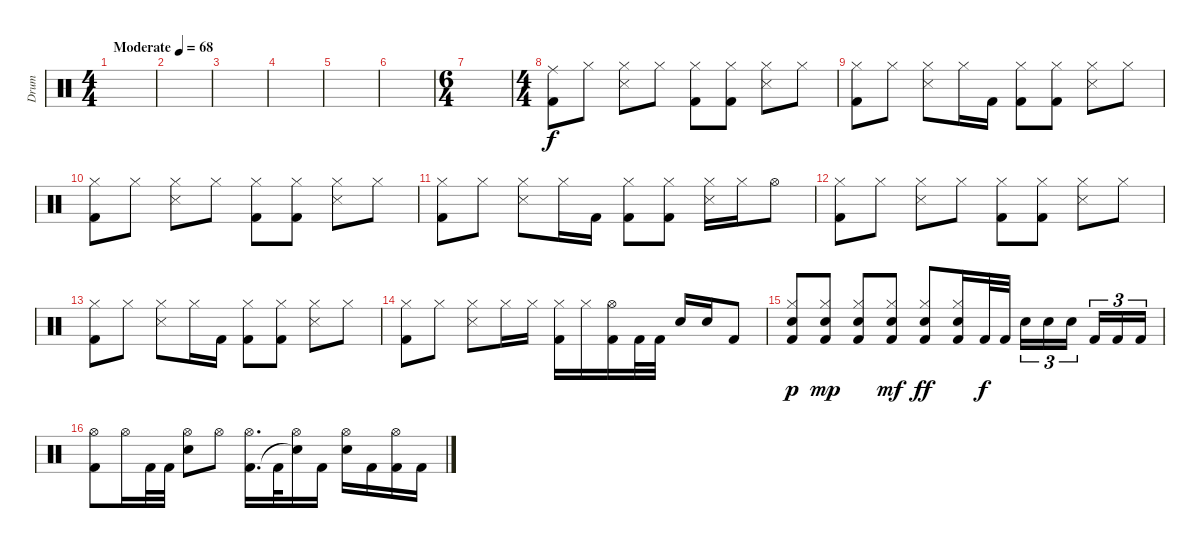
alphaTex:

\track ("Drum" "Drum") {instrument percussion}
\staff {score}
\articulation defaults
\ts (4 4)
\tempo (68 "Moderate")
\clef neutral
\ks c
|
|
|
|
|
|
\ts (6 4)
|
\ts (4 4)
("Ride (middle)" "Kick (hit) 2").8 "Hi-Hat (closed)".8 ("Hi-Hat (closed)" "Snare (side stick) 3").8 "Hi-Hat (closed)".8 ("Hi-Hat (closed)" "Kick (hit) 2").8 ("Hi-Hat (closed)" "Kick (hit) 2").8 ("Hi-Hat (closed)" "Snare (side stick) 3").8 "Hi-Hat (closed)".8 |
("Hi-Hat (closed)" "Kick (hit) 2").8 "Hi-Hat (closed)".8 ("Hi-Hat (closed)" "Snare (side stick) 3").8 "Hi-Hat (closed)".16 "Kick (hit) 2".16 ("Hi-Hat (closed)" "Kick (hit) 2").8 ("Hi-Hat (closed)" "Kick (hit) 2").8 ("Hi-Hat (closed)" "Snare (side stick) 3").8 "Hi-Hat (closed)".8 |
("Hi-Hat (closed)" "Kick (hit) 2").8 "Hi-Hat (closed)".8 ("Hi-Hat (closed)" "Snare (side stick) 3").8 "Hi-Hat (closed)".8 ("Hi-Hat (closed)" "Kick (hit) 2").8 ("Hi-Hat (closed)" "Kick (hit) 2").8 ("Hi-Hat (closed)" "Snare (side stick) 3").8 "Hi-Hat (closed)".8 |
("Hi-Hat (closed)" "Kick (hit) 2").8 "Hi-Hat (closed)".8 ("Hi-Hat (closed)" "Snare (side stick) 3").8 "Hi-Hat (closed)".16 "Kick (hit) 2".16 ("Hi-Hat (closed)" "Kick (hit) 2").8 ("Hi-Hat (closed)" "Kick (hit) 2").8 ("Hi-Hat (closed)" "Snare (side stick) 3").16 "Hi-Hat (closed)".16 "Hi-Hat (open)".8 |
("Hi-Hat (closed)" "Kick (hit) 2").8 "Hi-Hat (closed)".8 ("Hi-Hat (closed)" "Snare (side stick) 3").8 "Hi-Hat (closed)".8 ("Hi-Hat (closed)" "Kick (hit) 2").8 ("Hi-Hat (closed)" "Kick (hit) 2").8 ("Hi-Hat (closed)" "Snare (side stick) 3").8 "Hi-Hat (closed)".8 |
("Hi-Hat (closed)" "Kick (hit) 2").8 "Hi-Hat (closed)".8 ("Hi-Hat (closed)" "Snare (side stick) 3").8 "Hi-Hat (closed)".16 "Kick (hit) 2".16 ("Hi-Hat (closed)" "Kick (hit) 2").8 ("Hi-Hat (closed)" "Kick (hit) 2").8 ("Hi-Hat (closed)" "Snare (side stick) 3").8 "Hi-Hat (closed)".8 |
("Hi-Hat (closed)" "Kick (hit) 2").8 "Hi-Hat (closed)".8 ("Hi-Hat (closed)" "Snare (side stick) 3").8 "Hi-Hat (closed)".16 "Hi-Hat (closed)".16 ("Hi-Hat (closed)" "Kick (hit) 2").16 "Hi-Hat (closed)".16 ("Hi-Hat (open)" "Kick (hit) 2").16 "Kick (hit) 2".32 "Kick (hit) 2".32 "Snare (hit) 2".16 "Snare (hit) 2".16 "Kick (hit) 2".8 |
("Hi-Hat (closed)" "Snare (hit) 2" "Kick (hit) 2").8{dy p} ("Hi-Hat (closed)" "Snare (hit) 2" "Kick (hit) 2").8{dy mp} ("Hi-Hat (closed)" "Snare (hit) 2" "Kick (hit) 2").8 ("Hi-Hat (closed)" "Snare (hit) 2" "Kick (hit) 2").8{dy mf} ("Hi-Hat (closed)" "Snare (hit) 2" "Kick (hit) 2").8{dy ff} ("Hi-Hat (closed)" "Snare (hit) 2" "Kick (hit) 2").16 "Kick (hit) 2".32{dy f} "Kick (hit) 2".32 "Snare (hit) 2".16{tu (3 2)} "Snare (hit) 2".16{tu (3 2)} "Snare (hit) 2".16{tu (3 2) beam splitsecondary} "Kick (hit) 2".16{tu (3 2)} "Kick (hit) 2".16{tu (3 2)} "Kick (hit) 2".16{tu (3 2)} |
("Hi-Hat (open)" "Kick (hit) 2").8 "Hi-Hat (open)".16 "Kick (hit) 2".32 "Kick (hit) 2".32 ("Hi-Hat (open)" "Snare (hit) 2").8 "Hi-Hat (open)".8 ("Hi-Hat (open)" "Kick (hit) 2").16{d} "Kick (hit) 2".32 ("Hi-Hat (open)" "Snare (hit)"{t}).16 "Kick (hit) 2".16 ("Hi-Hat (open)" "Snare (hit) 2").16 "Kick (hit) 2".16 ("Hi-Hat (open)" "Kick (hit) 2").16 "Kick (hit) 2".16
